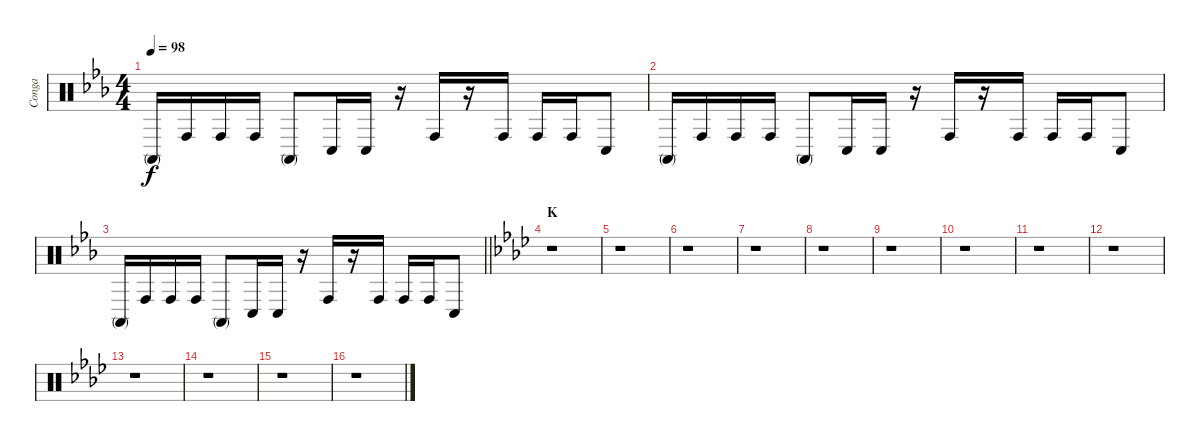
\track ("Conga" "Conga") {instrument percussion}
\staff {score}
\articulation defaults
\ts (4 4)
\tempo 98
\clef neutral
\ks eb "Conga high (mute)".16{dy f} "Conga high (hit)".16 "Conga high (hit)".16 "Conga high (hit)".16 "Conga high (mute)".8 "Conga low (hit)".16 "Conga low (hit)".16
r.16 "Conga high (hit)".16 r.16 "Conga high (hit)".16 "Conga high (hit)".16 "Conga high (hit)".16 "Conga low (hit)".8 |
"Conga high (mute)".16 "Conga high (hit)".16 "Conga high (hit)".16 "Conga high (hit)".16 "Conga high (mute)".8 "Conga low (hit)".16 "Conga low (hit)".16 r.16 "Conga high (hit)".16 r.16 "Conga high (hit)".16 "Conga high (hit)".16 "Conga high (hit)".16 "Conga low (hit)".8 |
\barLineRight lightlight "Conga high (mute)".16 "Conga high (hit)".16 "Conga high (hit)".16 "Conga high (hit)".16 "Conga high (mute)".8 "Conga low (hit)".16 "Conga low (hit)".16
r.16 "Conga high (hit)".16 r.16 "Conga high (hit)".16 "Conga high (hit)".16 "Conga high (hit)".16 "Conga low (hit)".8 |
\section ("" "K")
\ks ab
r.1 |
r.1 |
r.1 |
r.1 |
r.1 |
r.1 |
r.1 |
r.1 |
r.1 |
r.1 |
r.1 |
r.1 |
r.1
